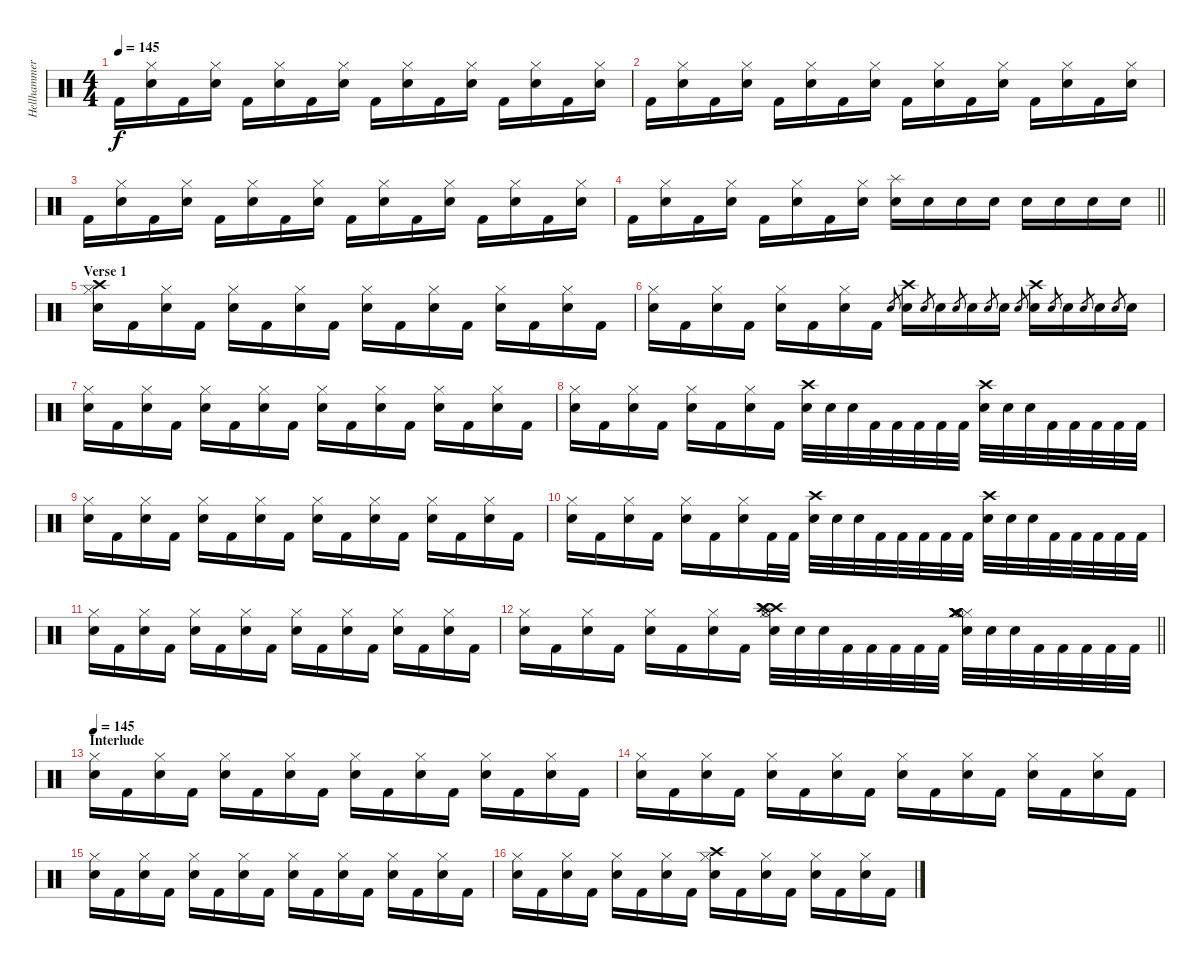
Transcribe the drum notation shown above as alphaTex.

\track ("Hellhammer" "Hellhammer") {instrument percussion}
\staff {score}
\articulation defaults
\ts (4 4)
\tempo 145
\clef neutral
\ks c "Kick (hit) 2".16{dy f}
("Hi-Hat (closed)" "Snare (hit) 2").16 "Kick (hit) 2".16 ("Hi-Hat (closed)" "Snare (hit) 2").16 "Kick (hit) 2".16 ("Hi-Hat (closed)" "Snare (hit) 2").16 "Kick (hit) 2".16 ("Hi-Hat (closed)" "Snare (hit) 2").16 "Kick (hit) 2".16 ("Hi-Hat (closed)" "Snare (hit) 2").16 "Kick (hit) 2".16 ("Hi-Hat (closed)" "Snare (hit) 2").16 "Kick (hit) 2".16 ("Hi-Hat (closed)" "Snare (hit) 2").16 "Kick (hit) 2".16 ("Hi-Hat (closed)" "Snare (hit) 2").16 |
"Kick (hit) 2".16 ("Hi-Hat (closed)" "Snare (hit) 2").16 "Kick (hit) 2".16 ("Hi-Hat (closed)" "Snare (hit) 2").16 "Kick (hit) 2".16 ("Hi-Hat (closed)" "Snare (hit) 2").16 "Kick (hit) 2".16 ("Hi-Hat (closed)" "Snare (hit) 2").16 "Kick (hit) 2".16 ("Hi-Hat (closed)" "Snare (hit) 2").16 "Kick (hit) 2".16 ("Hi-Hat (closed)" "Snare (hit) 2").16 "Kick (hit) 2".16 ("Hi-Hat (closed)" "Snare (hit) 2").16 "Kick (hit) 2".16 ("Hi-Hat (closed)" "Snare (hit) 2").16 |
"Kick (hit) 2".16 ("Hi-Hat (closed)" "Snare (hit) 2").16 "Kick (hit) 2".16 ("Hi-Hat (closed)" "Snare (hit) 2").16 "Kick (hit) 2".16 ("Hi-Hat (closed)" "Snare (hit) 2").16 "Kick (hit) 2".16 ("Hi-Hat (closed)" "Snare (hit) 2").16 "Kick (hit) 2".16 ("Hi-Hat (closed)" "Snare (hit) 2").16 "Kick (hit) 2".16 ("Hi-Hat (closed)" "Snare (hit) 2").16 "Kick (hit) 2".16 ("Hi-Hat (closed)" "Snare (hit) 2").16 "Kick (hit) 2".16 ("Hi-Hat (closed)" "Snare (hit) 2").16 |
\barLineRight lightlight "Kick (hit) 2".16
("Hi-Hat (closed)" "Snare (hit) 2").16 "Kick (hit) 2".16 ("Hi-Hat (closed)" "Snare (hit) 2").16 "Kick (hit) 2".16 ("Hi-Hat (closed)" "Snare (hit) 2").16 "Kick (hit) 2".16 ("Hi-Hat (closed)" "Snare (hit) 2").16 ("Splash (hit)" "Snare (hit) 2").16 "Snare (hit) 2".16 "Snare (hit) 2".16 "Snare (hit) 2".16 "Snare (hit) 2".16 "Snare (hit) 2".16 "Snare (hit) 2".16 "Snare (hit) 2".16 |
\section ("" "Verse 1")
("Crash high (hit)" "Hi-Hat (closed)" "Snare (hit) 2").16 "Kick (hit) 2".16 ("Hi-Hat (closed)" "Snare (hit) 2").16 "Kick (hit) 2".16 ("Hi-Hat (closed)" "Snare (hit) 2").16 "Kick (hit) 2".16 ("Hi-Hat (closed)" "Snare (hit) 2").16 "Kick (hit) 2".16 ("Hi-Hat (closed)" "Snare (hit) 2").16 "Kick (hit) 2".16 ("Hi-Hat (closed)" "Snare (hit) 2").16 "Kick (hit) 2".16 ("Hi-Hat (closed)" "Snare (hit) 2").16 "Kick (hit) 2".16 ("Hi-Hat (closed)" "Snare (hit) 2").16 "Kick (hit) 2".16 |
("Hi-Hat (closed)" "Snare (hit) 2").16 "Kick (hit) 2".16 ("Hi-Hat (closed)" "Snare (hit) 2").16 "Kick (hit) 2".16 ("Hi-Hat (closed)" "Snare (hit) 2").16 "Kick (hit) 2".16 ("Hi-Hat (closed)" "Snare (hit) 2").16 "Kick (hit) 2".16 "Snare (hit) 2".8{gr} ("Crash high (hit)" "Snare (hit) 2").16 "Snare (hit) 2".8{gr} "Snare (hit) 2".16 "Snare (hit) 2".8{gr} "Snare (hit) 2".16 "Snare (hit) 2".8{gr} "Snare (hit) 2".16 "Snare (hit) 2".8{gr} ("Crash high (hit)" "Snare (hit) 2").16 "Snare (hit) 2".8{gr} "Snare (hit) 2".16 "Snare (hit) 2".8{gr} "Snare (hit) 2".16 "Snare (hit) 2".8{gr} "Snare (hit) 2".16 |
("Hi-Hat (closed)" "Snare (hit) 2").16 "Kick (hit) 2".16 ("Hi-Hat (closed)" "Snare (hit) 2").16 "Kick (hit) 2".16 ("Hi-Hat (closed)" "Snare (hit) 2").16 "Kick (hit) 2".16 ("Hi-Hat (closed)" "Snare (hit) 2").16 "Kick (hit) 2".16 ("Hi-Hat (closed)" "Snare (hit) 2").16 "Kick (hit) 2".16 ("Hi-Hat (closed)" "Snare (hit) 2").16 "Kick (hit) 2".16 ("Hi-Hat (closed)" "Snare (hit) 2").16 "Kick (hit) 2".16 ("Hi-Hat (closed)" "Snare (hit) 2").16 "Kick (hit) 2".16 |
("Hi-Hat (closed)" "Snare (hit) 2").16 "Kick (hit) 2".16 ("Hi-Hat (closed)" "Snare (hit) 2").16 "Kick (hit) 2".16 ("Hi-Hat (closed)" "Snare (hit) 2").16 "Kick (hit) 2".16 ("Hi-Hat (closed)" "Snare (hit) 2").16 "Kick (hit) 2".16 ("Crash high (hit)" "Snare (hit) 2").32 "Snare (hit) 2".32 "Snare (hit) 2".32 "Kick (hit) 2".32 "Kick (hit) 2".32 "Kick (hit) 2".32 "Kick (hit) 2".32 "Kick (hit) 2".32 ("Crash high (hit)" "Snare (hit) 2").32 "Snare (hit) 2".32 "Snare (hit) 2".32 "Kick (hit) 2".32 "Kick (hit) 2".32 "Kick (hit) 2".32 "Kick (hit) 2".32 "Kick (hit) 2".32 |
("Hi-Hat (closed)" "Snare (hit) 2").16 "Kick (hit) 2".16 ("Hi-Hat (closed)" "Snare (hit) 2").16 "Kick (hit) 2".16 ("Hi-Hat (closed)" "Snare (hit) 2").16 "Kick (hit) 2".16 ("Hi-Hat (closed)" "Snare (hit) 2").16 "Kick (hit) 2".16 ("Hi-Hat (closed)" "Snare (hit) 2").16 "Kick (hit) 2".16 ("Hi-Hat (closed)" "Snare (hit) 2").16 "Kick (hit) 2".16 ("Hi-Hat (closed)" "Snare (hit) 2").16 "Kick (hit) 2".16 ("Hi-Hat (closed)" "Snare (hit) 2").16 "Kick (hit) 2".16 |
("Hi-Hat (closed)" "Snare (hit) 2").16 "Kick (hit) 2".16 ("Hi-Hat (closed)" "Snare (hit) 2").16 "Kick (hit) 2".16 ("Hi-Hat (closed)" "Snare (hit) 2").16 "Kick (hit) 2".16 ("Hi-Hat (closed)" "Snare (hit) 2").16 "Kick (hit) 2".32 "Kick (hit) 2".32 ("Crash high (hit)" "Snare (hit) 2").32 "Snare (hit) 2".32 "Snare (hit) 2".32 "Kick (hit) 2".32 "Kick (hit) 2".32 "Kick (hit) 2".32 "Kick (hit) 2".32 "Kick (hit) 2".32 ("Crash high (hit)" "Snare (hit) 2").32 "Snare (hit) 2".32 "Snare (hit) 2".32 "Kick (hit) 2".32 "Kick (hit) 2".32 "Kick (hit) 2".32 "Kick (hit) 2".32 "Kick (hit) 2".32 |
("Hi-Hat (closed)" "Snare (hit) 2").16 "Kick (hit) 2".16 ("Hi-Hat (closed)" "Snare (hit) 2").16 "Kick (hit) 2".16 ("Hi-Hat (closed)" "Snare (hit) 2").16 "Kick (hit) 2".16 ("Hi-Hat (closed)" "Snare (hit) 2").16 "Kick (hit) 2".16 ("Hi-Hat (closed)" "Snare (hit) 2").16 "Kick (hit) 2".16 ("Hi-Hat (closed)" "Snare (hit) 2").16 "Kick (hit) 2".16 ("Hi-Hat (closed)" "Snare (hit) 2").16 "Kick (hit) 2".16 ("Hi-Hat (closed)" "Snare (hit) 2").16 "Kick (hit) 2".16 |
\barLineRight lightlight
("Hi-Hat (closed)" "Snare (hit) 2").16 "Kick (hit) 2".16 ("Hi-Hat (closed)" "Snare (hit) 2").16 "Kick (hit) 2".16 ("Hi-Hat (closed)" "Snare (hit) 2").16 "Kick (hit) 2".16 ("Hi-Hat (closed)" "Snare (hit) 2").16 "Kick (hit) 2".16 ("Crash high (hit)" "Crash high (hit)" "Hi-Hat (closed)" "Hi-Hat (open)" "Crash high (hit)" "Snare (hit) 2").32 "Snare (hit) 2".32 "Snare (hit) 2".32 "Kick (hit) 2".32 "Kick (hit) 2".32 "Kick (hit) 2".32 "Kick (hit) 2".32 "Kick (hit) 2".32 ("Hi-Hat (closed)" "Hi-Hat (open)" "Crash medium (hit)" "Crash medium (hit)" "Crash medium (hit)" "Snare (hit) 2").32 "Snare (hit) 2".32 "Snare (hit) 2".32 "Kick (hit) 2".32 "Kick (hit) 2".32 "Kick (hit) 2".32 "Kick (hit) 2".32 "Kick (hit) 2".32 |
\section ("" "Interlude")
\tempo 145
("Hi-Hat (closed)" "Snare (hit) 2").16 "Kick (hit) 2".16 ("Hi-Hat (closed)" "Snare (hit) 2").16 "Kick (hit) 2".16 ("Hi-Hat (closed)" "Snare (hit) 2").16 "Kick (hit) 2".16 ("Hi-Hat (closed)" "Snare (hit) 2").16 "Kick (hit) 2".16 ("Hi-Hat (closed)" "Snare (hit) 2").16 "Kick (hit) 2".16 ("Hi-Hat (closed)" "Snare (hit) 2").16 "Kick (hit) 2".16 ("Hi-Hat (closed)" "Snare (hit) 2").16 "Kick (hit) 2".16 ("Hi-Hat (closed)" "Snare (hit) 2").16 "Kick (hit) 2".16 |
("Hi-Hat (closed)" "Snare (hit) 2").16 "Kick (hit) 2".16 ("Hi-Hat (closed)" "Snare (hit) 2").16 "Kick (hit) 2".16 ("Hi-Hat (closed)" "Snare (hit) 2").16 "Kick (hit) 2".16 ("Hi-Hat (closed)" "Snare (hit) 2").16 "Kick (hit) 2".16 ("Hi-Hat (closed)" "Snare (hit) 2").16 "Kick (hit) 2".16 ("Hi-Hat (closed)" "Snare (hit) 2").16 "Kick (hit) 2".16 ("Hi-Hat (closed)" "Snare (hit) 2").16 "Kick (hit) 2".16 ("Hi-Hat (closed)" "Snare (hit) 2").16 "Kick (hit) 2".16 |
("Hi-Hat (closed)" "Snare (hit) 2").16 "Kick (hit) 2".16 ("Hi-Hat (closed)" "Snare (hit) 2").16 "Kick (hit) 2".16 ("Hi-Hat (closed)" "Snare (hit) 2").16 "Kick (hit) 2".16 ("Hi-Hat (closed)" "Snare (hit) 2").16 "Kick (hit) 2".16 ("Hi-Hat (closed)" "Snare (hit) 2").16 "Kick (hit) 2".16 ("Hi-Hat (closed)" "Snare (hit) 2").16 "Kick (hit) 2".16 ("Hi-Hat (closed)" "Snare (hit) 2").16 "Kick (hit) 2".16 ("Hi-Hat (closed)" "Snare (hit) 2").16 "Kick (hit) 2".16 |
("Hi-Hat (closed)" "Snare (hit) 2").16 "Kick (hit) 2".16 ("Hi-Hat (closed)" "Snare (hit) 2").16 "Kick (hit) 2".16 ("Hi-Hat (closed)" "Snare (hit) 2").16 "Kick (hit) 2".16 ("Hi-Hat (closed)" "Snare (hit) 2").16 "Kick (hit) 2".16 ("Crash high (hit)" "Hi-Hat (closed)" "Snare (hit) 2").16 "Kick (hit) 2".16 ("Hi-Hat (closed)" "Snare (hit) 2").16 "Kick (hit) 2".16 ("Hi-Hat (closed)" "Snare (hit) 2").16 "Kick (hit) 2".16 ("Hi-Hat (closed)" "Snare (hit) 2").16 "Kick (hit) 2".16
